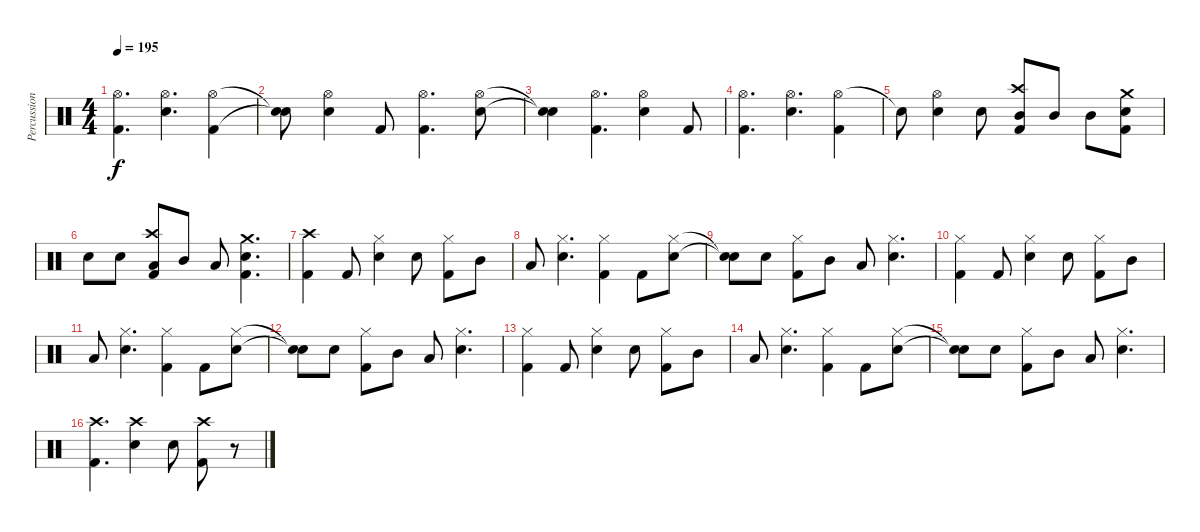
\track ("Percussion" "Percussion") {instrument percussion}
\staff {score}
\articulation defaults
\ts (4 4)
\tempo 195
\clef neutral
\ks c
("Hi-Hat (open)" "Kick (hit) 2").4{d dy f} ("Hi-Hat (open)" "Electric Snare (hit)").4{d} ("Hi-Hat (open)" "Kick (hit) 2").4 |
("Snare (hit)"{t} "Snare (hit)"{t}).8 ("Hi-Hat (open)" "Electric Snare (hit)").4 "Kick (hit) 2".8 ("Hi-Hat (open)" "Kick (hit) 2").4{d} ("Hi-Hat (open)" "Electric Snare (hit)").8 |
("Snare (hit)"{t} "Snare (hit)"{t}).4 ("Hi-Hat (open)" "Kick (hit) 2").4{d} ("Hi-Hat (open)" "Electric Snare (hit)").4 "Kick (hit) 2".8 |
("Hi-Hat (open)" "Kick (hit) 2").4{d} ("Hi-Hat (open)" "Electric Snare (hit)").4{d} ("Hi-Hat (open)" "Kick (hit) 2").4 |
"Snare (hit)"{t}.8 ("Hi-Hat (open)" "Electric Snare (hit)").4 "Electric Snare (hit)".8 ("Crash high (hit)" "Mid Tom (hit)" "Kick (hit) 2").8 "Mid Tom (hit)".8 "Mid Tom (hit)".8 ("Crash medium (hit)" "Electric Snare (hit)" "Kick (hit) 2").8 |
"Electric Snare (hit)".8 "Electric Snare (hit)".8 ("Crash high (hit)" "Low Tom (hit)" "Kick (hit) 2").8 "Mid Tom (hit)".8 "Low Tom (hit)".8 ("Crash medium (hit)" "Electric Snare (hit)" "Kick (hit) 2").4{d} |
("Crash high (hit)" "Kick (hit) 2").4 "Kick (hit) 2".8 ("Hi-Hat (closed)" "Electric Snare (hit)").4 "Electric Snare (hit)".8 ("Hi-Hat (closed)" "Kick (hit) 2").8 "Mid Tom (hit)".8 |
"Low Tom (hit)".8 ("Hi-Hat (closed)" "Electric Snare (hit)").4{d} ("Hi-Hat (closed)" "Kick (hit) 2").4 "Kick (hit) 2".8 ("Hi-Hat (closed)" "Electric Snare (hit)").8 |
("Snare (hit)"{t} "Snare (hit)"{t}).8 "Electric Snare (hit)".8 ("Hi-Hat (closed)" "Kick (hit) 2").8 "Mid Tom (hit)".8 "Low Tom (hit)".8 ("Hi-Hat (closed)" "Electric Snare (hit)").4{d} |
("Hi-Hat (closed)" "Kick (hit) 2").4 "Kick (hit) 2".8 ("Hi-Hat (closed)" "Electric Snare (hit)").4 "Electric Snare (hit)".8 ("Hi-Hat (closed)" "Kick (hit) 2").8 "Mid Tom (hit)".8 |
"Low Tom (hit)".8 ("Hi-Hat (closed)" "Electric Snare (hit)").4{d} ("Hi-Hat (closed)" "Kick (hit) 2").4 "Kick (hit) 2".8 ("Hi-Hat (closed)" "Electric Snare (hit)").8 |
("Snare (hit)"{t} "Snare (hit)"{t}).8 "Electric Snare (hit)".8 ("Hi-Hat (closed)" "Kick (hit) 2").8 "Mid Tom (hit)".8 "Low Tom (hit)".8 ("Hi-Hat (closed)" "Electric Snare (hit)").4{d} |
("Hi-Hat (closed)" "Kick (hit) 2").4 "Kick (hit) 2".8 ("Hi-Hat (closed)" "Electric Snare (hit)").4 "Electric Snare (hit)".8 ("Hi-Hat (closed)" "Kick (hit) 2").8 "Mid Tom (hit)".8 |
"Low Tom (hit)".8 ("Hi-Hat (closed)" "Electric Snare (hit)").4{d} ("Hi-Hat (closed)" "Kick (hit) 2").4 "Kick (hit) 2".8 ("Hi-Hat (closed)" "Electric Snare (hit)").8 |
("Snare (hit)"{t} "Snare (hit)"{t}).8 "Electric Snare (hit)".8 ("Hi-Hat (closed)" "Kick (hit) 2").8 "Mid Tom (hit)".8 "Low Tom (hit)".8 ("Hi-Hat (closed)" "Electric Snare (hit)").4{d} |
("Crash high (hit)" "Kick (hit) 2").4{d} ("Crash high (hit)" "Electric Snare (hit)").4 "Electric Snare (hit)".8 ("Crash high (hit)" "Kick (hit) 2").8 r.8
